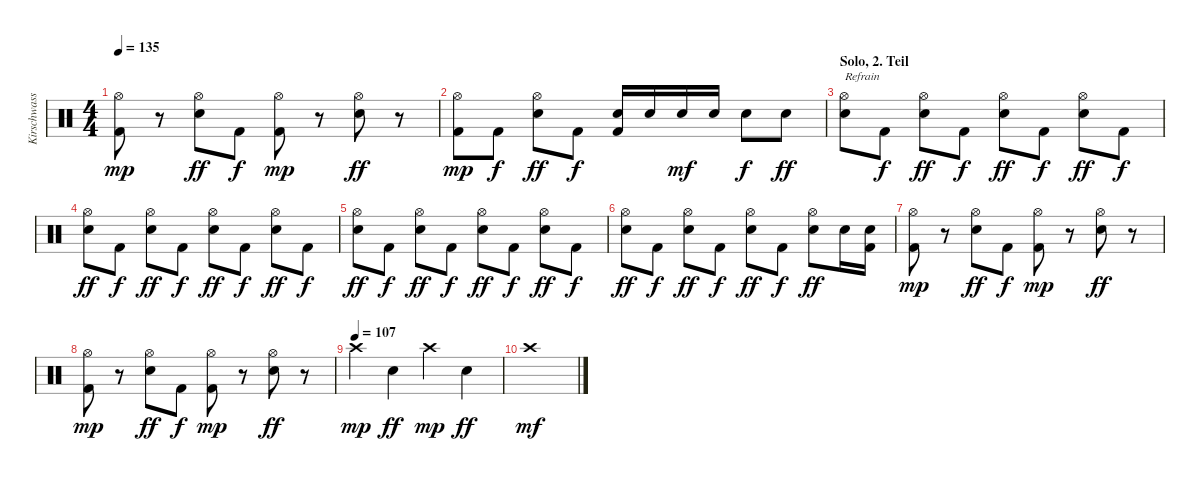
\track ("Kirschwasserkönig" "Kirschwass") {instrument percussion}
\staff {score}
\articulation defaults
\ts (4 4)
\tempo 135
\clef neutral
\ks c
("Hi-Hat (open)" "Kick (hit) 2").8{dy mp} r.8 ("Hi-Hat (open)" "Electric Snare (hit)").8{dy ff} "Kick (hit) 2".8{dy f} ("Hi-Hat (open)" "Kick (hit) 2").8{dy mp} r.8 ("Hi-Hat (open)" "Electric Snare (hit)").8{dy ff} r.8 |
("Hi-Hat (open)" "Kick (hit) 2").8{dy mp volume 13} "Kick (hit) 2".8{dy f} ("Hi-Hat (open)" "Electric Snare (hit)").8{dy ff} "Kick (hit) 2".8{dy f} ("Kick (hit) 2" "Electric Snare (hit)").16 "Electric Snare (hit)".16 "Electric Snare (hit)".16{dy mf} "Electric Snare (hit)".16 "Electric Snare (hit)".8{dy f} "Electric Snare (hit)".8{dy ff} |
\section ("" "Solo, 2. Teil")
("Hi-Hat (open)" "Electric Snare (hit)").8{txt "Refrain"} "Kick (hit) 2".8{dy f} ("Hi-Hat (open)" "Electric Snare (hit)").8{dy ff} "Kick (hit) 2".8{dy f} ("Hi-Hat (open)" "Electric Snare (hit)").8{dy ff} "Kick (hit) 2".8{dy f} ("Hi-Hat (open)" "Electric Snare (hit)").8{dy ff} "Kick (hit) 2".8{dy f} |
("Hi-Hat (open)" "Electric Snare (hit)").8{dy ff} "Kick (hit) 2".8{dy f} ("Hi-Hat (open)" "Electric Snare (hit)").8{dy ff} "Kick (hit) 2".8{dy f} ("Hi-Hat (open)" "Electric Snare (hit)").8{dy ff} "Kick (hit) 2".8{dy f} ("Hi-Hat (open)" "Electric Snare (hit)").8{dy ff} "Kick (hit) 2".8{dy f} |
("Hi-Hat (open)" "Electric Snare (hit)").8{dy ff} "Kick (hit) 2".8{dy f} ("Hi-Hat (open)" "Electric Snare (hit)").8{dy ff} "Kick (hit) 2".8{dy f} ("Hi-Hat (open)" "Electric Snare (hit)").8{dy ff} "Kick (hit) 2".8{dy f} ("Hi-Hat (open)" "Electric Snare (hit)").8{dy ff} "Kick (hit) 2".8{dy f} |
("Hi-Hat (open)" "Electric Snare (hit)").8{dy ff} "Kick (hit) 2".8{dy f} ("Hi-Hat (open)" "Electric Snare (hit)").8{dy ff} "Kick (hit) 2".8{dy f} ("Hi-Hat (open)" "Electric Snare (hit)").8{dy ff} "Kick (hit) 2".8{dy f} ("Hi-Hat (open)" "Electric Snare (hit)").8{dy ff} "Electric Snare (hit)".16 ("Kick (hit) 2" "Electric Snare (hit)").16 |
("Hi-Hat (open)" "Kick (hit) 2").8{dy mp} r.8 ("Hi-Hat (open)" "Electric Snare (hit)").8{dy ff} "Kick (hit) 2".8{dy f} ("Hi-Hat (open)" "Kick (hit) 2").8{dy mp} r.8 ("Hi-Hat (open)" "Electric Snare (hit)").8{dy ff} r.8 |
("Hi-Hat (open)" "Kick (hit) 2").8{dy mp} r.8 ("Hi-Hat (open)" "Electric Snare (hit)").8{dy ff} "Kick (hit) 2".8{dy f} ("Hi-Hat (open)" "Kick (hit) 2").8{dy mp} r.8 ("Hi-Hat (open)" "Electric Snare (hit)").8{dy ff} r.8 |
\tempo (107)
"Crash high (hit)".4{dy mp} "Electric Snare (hit)".4{dy ff} "Crash high (hit)".4{dy mp} "Electric Snare (hit)".4{dy ff} |
"Crash high (hit)".1{dy mf}
